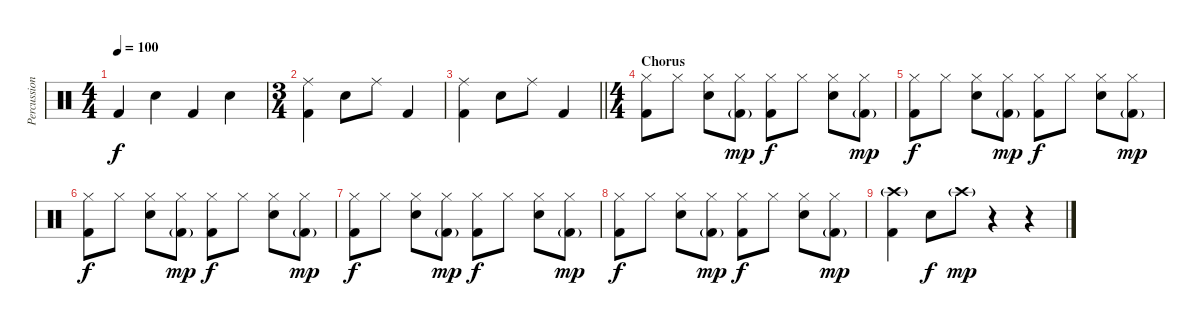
\track ("Percussion" "Percussion") {instrument percussion}
\staff {score}
\articulation defaults
\ts (4 4)
\tempo 100
\clef neutral
\ks c "Kick (hit) 2".4{dy f} "Snare (hit) 2".4 "Kick (hit) 2".4 "Snare (hit) 2".4
|
\ts (3 4)
("Ride (middle)" "Kick (hit) 2").4 "Snare (hit) 2".8 "Ride (middle)".8 "Kick (hit) 2".4 |
\barLineRight lightlight
("Ride (middle)" "Kick (hit) 2").4 "Snare (hit) 2".8 "Ride (middle)".8 "Kick (hit) 2".4 |
\ts (4 4)
\section ("" "Chorus")
("Hi-Hat (closed)" "Kick (hit) 2").8 "Hi-Hat (closed)".8 ("Hi-Hat (closed)" "Snare (hit) 2").8 ("Hi-Hat (closed)" "Kick (hit) 2"{g}).8{dy mp} ("Hi-Hat (closed)" "Kick (hit) 2").8{dy f} "Hi-Hat (closed)".8 ("Hi-Hat (closed)" "Snare (hit) 2").8 ("Hi-Hat (closed)" "Kick (hit) 2"{g}).8{dy mp} |
("Hi-Hat (closed)" "Kick (hit) 2").8{dy f} "Hi-Hat (closed)".8 ("Hi-Hat (closed)" "Snare (hit) 2").8 ("Hi-Hat (closed)" "Kick (hit) 2"{g}).8{dy mp} ("Hi-Hat (closed)" "Kick (hit) 2").8{dy f} "Hi-Hat (closed)".8 ("Hi-Hat (closed)" "Snare (hit) 2").8 ("Hi-Hat (closed)" "Kick (hit) 2"{g}).8{dy mp} |
("Hi-Hat (closed)" "Kick (hit) 2").8{dy f} "Hi-Hat (closed)".8 ("Hi-Hat (closed)" "Snare (hit) 2").8 ("Hi-Hat (closed)" "Kick (hit) 2"{g}).8{dy mp} ("Hi-Hat (closed)" "Kick (hit) 2").8{dy f} "Hi-Hat (closed)".8 ("Hi-Hat (closed)" "Snare (hit) 2").8 ("Hi-Hat (closed)" "Kick (hit) 2"{g}).8{dy mp} |
("Hi-Hat (closed)" "Kick (hit) 2").8{dy f} "Hi-Hat (closed)".8 ("Hi-Hat (closed)" "Snare (hit) 2").8 ("Hi-Hat (closed)" "Kick (hit) 2"{g}).8{dy mp} ("Hi-Hat (closed)" "Kick (hit) 2").8{dy f} "Hi-Hat (closed)".8 ("Hi-Hat (closed)" "Snare (hit) 2").8 ("Hi-Hat (closed)" "Kick (hit) 2"{g}).8{dy mp} |
("Hi-Hat (closed)" "Kick (hit) 2").8{dy f} "Hi-Hat (closed)".8 ("Hi-Hat (closed)" "Snare (hit) 2").8 ("Hi-Hat (closed)" "Kick (hit) 2"{g}).8{dy mp} ("Hi-Hat (closed)" "Kick (hit) 2").8{dy f} "Hi-Hat (closed)".8 ("Hi-Hat (closed)" "Snare (hit) 2").8 ("Hi-Hat (closed)" "Kick (hit) 2"{g}).8{dy mp} |
("Crash high (hit)"{g} "Kick (hit) 2").4 "Snare (hit) 2".8{dy f} "Crash high (hit)"{g}.8{dy mp} r.4 r.4
